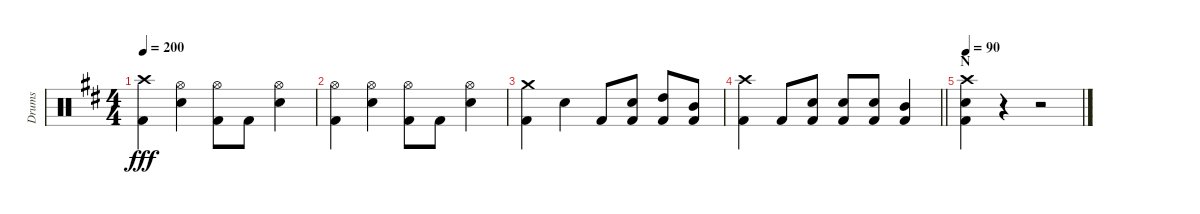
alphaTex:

\track ("Drums" "Drums") {instrument percussion}
\staff {score}
\articulation defaults
\ts (4 4)
\tempo 200
\clef neutral
\ks d
("Crash high (hit)" "Kick (hit) 2").4{dy fff} ("Hi-Hat (open)" "Snare (hit) 2").4 ("Hi-Hat (open)" "Kick (hit) 2").8 "Kick (hit) 2".8 ("Hi-Hat (open)" "Snare (hit) 2").4 |
("Hi-Hat (open)" "Kick (hit) 2").4 ("Hi-Hat (open)" "Snare (hit) 2").4 ("Hi-Hat (open)" "Kick (hit) 2").8 "Kick (hit) 2".8 ("Hi-Hat (open)" "Snare (hit) 2").4 |
("Crash medium (hit)" "Kick (hit) 2").4 "Snare (hit) 2".4 "Kick (hit) 2".8 ("Snare (hit) 2" "Kick (hit) 2").8 ("High Tom (hit)" "Kick (hit) 2").8 ("Mid Tom (hit)" "Kick (hit) 2").8 |
\barLineRight lightlight
("Crash high (hit)" "Kick (hit) 2").4 "Kick (hit) 2".8 ("Snare (hit) 2" "Kick (hit) 2").8 ("Snare (hit) 2" "Kick (hit) 2").8 ("Snare (hit) 2" "Kick (hit) 2").8 ("Mid Tom (hit)" "Kick (hit) 2").4 |
\section ("" "N")
\tempo 90
("Crash high (hit)" "Snare (hit) 2" "Kick (hit) 2").4 r.4 r.2
